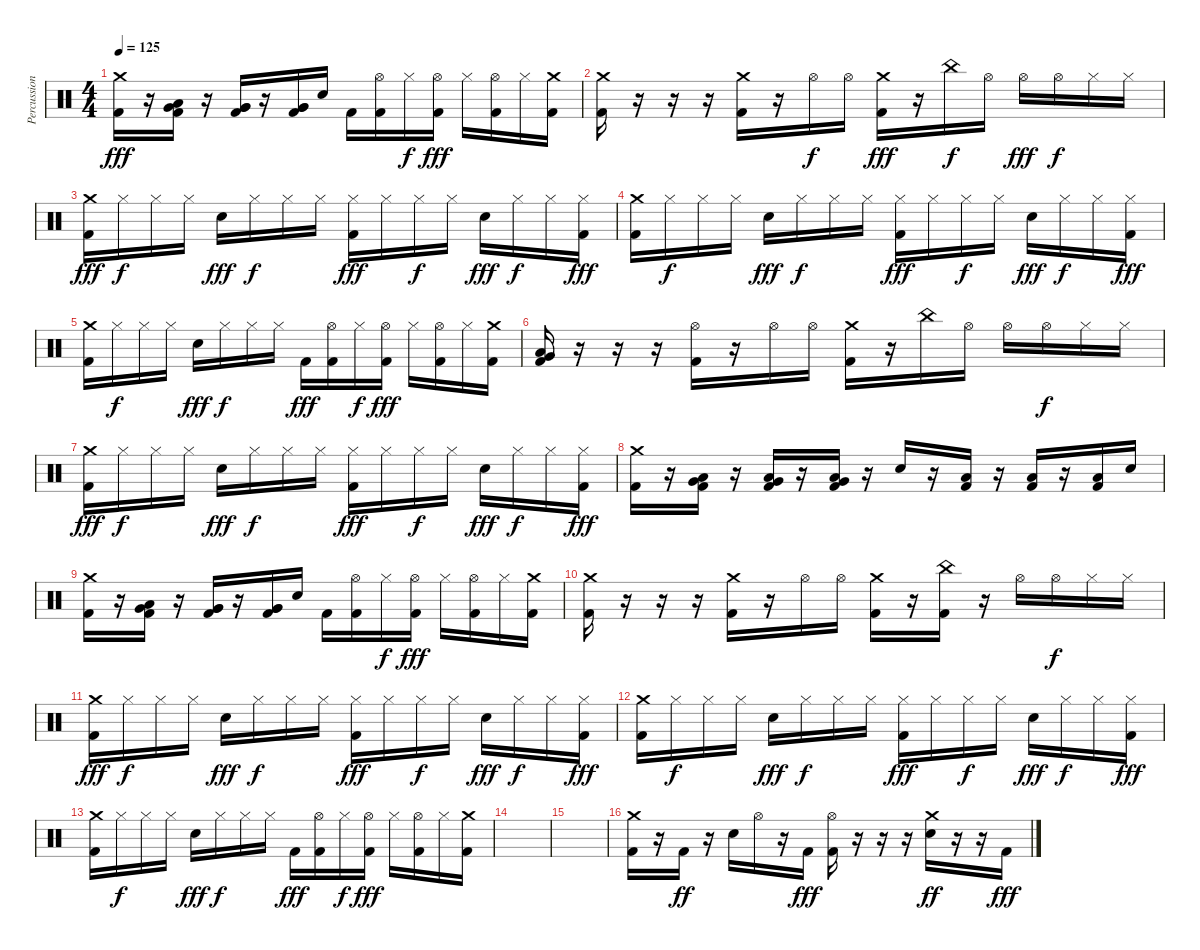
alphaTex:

\track ("Percussion" "Percussion") {instrument percussion}
\staff {score}
\articulation defaults
\ts (4 4)
\tempo 125
\clef neutral
\ks c
("Crash medium (hit)" "Kick (hit) 2").16{dy fff} r.16 ("Very Low Tom (hit)" "Low Floor Tom (hit)" "Kick (hit) 2").16 r.16 ("Very Low Tom (hit)" "Very Low Tom (hit)" "Kick (hit) 2").16 r.16 ("Very Low Tom (hit)" "Very Low Tom (hit)" "Kick (hit) 2").16 "Electric Snare (hit)".16 "Kick (hit) 2".16 ("Hi-Hat (open)" "Kick (hit) 2").16 "Hi-Hat (closed)".16{dy f} ("Hi-Hat (open)" "Kick (hit) 2").16{dy fff} "Hi-Hat (closed)".16 ("Hi-Hat (open)" "Kick (hit) 2").16 "Hi-Hat (closed)".16 ("Crash medium (hit)" "Kick (hit) 2").16 |
("Crash medium (hit)" "Kick (hit) 2").16 r.16 r.16 r.16 ("Crash medium (hit)" "Kick (hit) 2").16 r.16 "Hi-Hat (open)".16{dy f} "Hi-Hat (open)".16 ("Crash medium (hit)" "Kick (hit) 2").16{dy fff} r.16 "China (hit)".16{dy f} "Hi-Hat (open)".16 "Hi-Hat (open)".16{dy fff} "Hi-Hat (open)".16{dy f} "Hi-Hat (closed)".16 "Hi-Hat (closed)".16 |
("Crash medium (hit)" "Kick (hit) 2").16{dy fff} "Hi-Hat (closed)".16{dy f} "Hi-Hat (closed)".16 "Hi-Hat (closed)".16 "Electric Snare (hit)".16{dy fff} "Hi-Hat (closed)".16{dy f} "Hi-Hat (closed)".16 "Hi-Hat (closed)".16 ("Hi-Hat (closed)" "Kick (hit) 2").16{dy fff} "Hi-Hat (closed)".16 "Hi-Hat (closed)".16{dy f} "Hi-Hat (closed)".16 "Electric Snare (hit)".16{dy fff} "Hi-Hat (closed)".16{dy f} "Hi-Hat (closed)".16 ("Hi-Hat (closed)" "Kick (hit) 2").16{dy fff} |
("Crash medium (hit)" "Kick (hit) 2").16 "Hi-Hat (closed)".16{dy f} "Hi-Hat (closed)".16 "Hi-Hat (closed)".16 "Electric Snare (hit)".16{dy fff} "Hi-Hat (closed)".16{dy f} "Hi-Hat (closed)".16 "Hi-Hat (closed)".16 ("Hi-Hat (closed)" "Kick (hit) 2").16{dy fff} "Hi-Hat (closed)".16 "Hi-Hat (closed)".16{dy f} "Hi-Hat (closed)".16 "Electric Snare (hit)".16{dy fff} "Hi-Hat (closed)".16{dy f} "Hi-Hat (closed)".16 ("Hi-Hat (closed)" "Kick (hit) 2").16{dy fff} |
("Crash medium (hit)" "Kick (hit) 2").16 "Hi-Hat (closed)".16{dy f} "Hi-Hat (closed)".16 "Hi-Hat (closed)".16 "Electric Snare (hit)".16{dy fff} "Hi-Hat (closed)".16{dy f} "Hi-Hat (closed)".16 "Hi-Hat (closed)".16 "Kick (hit) 2".16{dy fff} ("Hi-Hat (open)" "Kick (hit) 2").16 "Hi-Hat (closed)".16{dy f} ("Hi-Hat (open)" "Kick (hit) 2").16{dy fff} "Hi-Hat (closed)".16 ("Hi-Hat (open)" "Kick (hit) 2").16 "Hi-Hat (closed)".16 ("Crash medium (hit)" "Kick (hit) 2").16 |
("Very Low Tom (hit)" "Low Floor Tom (hit)" "Kick (hit) 2").16 r.16 r.16 r.16 ("Hi-Hat (open)" "Kick (hit) 2").16 r.16 "Hi-Hat (open)".16 "Hi-Hat (open)".16 ("Crash medium (hit)" "Kick (hit) 2").16 r.16 "China (hit)".16 "Hi-Hat (open)".16 "Hi-Hat (open)".16 "Hi-Hat (open)".16{dy f} "Hi-Hat (closed)".16 "Hi-Hat (closed)".16 |
("Crash medium (hit)" "Kick (hit) 2").16{dy fff} "Hi-Hat (closed)".16{dy f} "Hi-Hat (closed)".16 "Hi-Hat (closed)".16 "Electric Snare (hit)".16{dy fff} "Hi-Hat (closed)".16{dy f} "Hi-Hat (closed)".16 "Hi-Hat (closed)".16 ("Hi-Hat (closed)" "Kick (hit) 2").16{dy fff} "Hi-Hat (closed)".16 "Hi-Hat (closed)".16{dy f} "Hi-Hat (closed)".16 "Electric Snare (hit)".16{dy fff} "Hi-Hat (closed)".16{dy f} "Hi-Hat (closed)".16 ("Hi-Hat (closed)" "Kick (hit) 2").16{dy fff} |
("Crash medium (hit)" "Kick (hit) 2").16 r.16 ("Very Low Tom (hit)" "Low Floor Tom (hit)" "Kick (hit) 2").16 r.16 ("Very Low Tom (hit)" "Low Floor Tom (hit)" "Kick (hit) 2").16 r.16 ("Very Low Tom (hit)" "Low Floor Tom (hit)" "Kick (hit) 2").16 r.16 "Electric Snare (hit)".16 r.16 ("Low Floor Tom (hit)" "Kick (hit) 2").16 r.16 ("Low Floor Tom (hit)" "Kick (hit) 2").16 r.16 ("Low Floor Tom (hit)" "Kick (hit) 2").16 "Electric Snare (hit)".16 |
("Crash medium (hit)" "Kick (hit) 2").16 r.16 ("Very Low Tom (hit)" "Low Floor Tom (hit)" "Kick (hit) 2").16 r.16 ("Very Low Tom (hit)" "Very Low Tom (hit)" "Kick (hit) 2").16 r.16 ("Very Low Tom (hit)" "Very Low Tom (hit)" "Kick (hit) 2").16 "Electric Snare (hit)".16 "Kick (hit) 2".16 ("Hi-Hat (open)" "Kick (hit) 2").16 "Hi-Hat (closed)".16{dy f} ("Hi-Hat (open)" "Kick (hit) 2").16{dy fff} "Hi-Hat (closed)".16 ("Hi-Hat (open)" "Kick (hit) 2").16 "Hi-Hat (closed)".16 ("Crash medium (hit)" "Kick (hit) 2").16 |
("Crash medium (hit)" "Kick (hit) 2").16 r.16 r.16 r.16 ("Crash medium (hit)" "Kick (hit) 2").16 r.16 "Hi-Hat (open)".16 "Hi-Hat (open)".16 ("Crash medium (hit)" "Kick (hit) 2").16 r.16 ("China (hit)" "Kick (hit) 2").16 r.16 "Hi-Hat (open)".16 "Hi-Hat (open)".16{dy f} "Hi-Hat (closed)".16 "Hi-Hat (closed)".16 |
("Crash medium (hit)" "Kick (hit) 2").16{dy fff} "Hi-Hat (closed)".16{dy f} "Hi-Hat (closed)".16 "Hi-Hat (closed)".16 "Electric Snare (hit)".16{dy fff} "Hi-Hat (closed)".16{dy f} "Hi-Hat (closed)".16 "Hi-Hat (closed)".16 ("Hi-Hat (closed)" "Kick (hit) 2").16{dy fff} "Hi-Hat (closed)".16 "Hi-Hat (closed)".16{dy f} "Hi-Hat (closed)".16 "Electric Snare (hit)".16{dy fff} "Hi-Hat (closed)".16{dy f} "Hi-Hat (closed)".16 ("Hi-Hat (closed)" "Kick (hit) 2").16{dy fff} |
("Crash medium (hit)" "Kick (hit) 2").16 "Hi-Hat (closed)".16{dy f} "Hi-Hat (closed)".16 "Hi-Hat (closed)".16 "Electric Snare (hit)".16{dy fff} "Hi-Hat (closed)".16{dy f} "Hi-Hat (closed)".16 "Hi-Hat (closed)".16 ("Hi-Hat (closed)" "Kick (hit) 2").16{dy fff} "Hi-Hat (closed)".16 "Hi-Hat (closed)".16{dy f} "Hi-Hat (closed)".16 "Electric Snare (hit)".16{dy fff} "Hi-Hat (closed)".16{dy f} "Hi-Hat (closed)".16 ("Hi-Hat (closed)" "Kick (hit) 2").16{dy fff} |
("Crash medium (hit)" "Kick (hit) 2").16 "Hi-Hat (closed)".16{dy f} "Hi-Hat (closed)".16 "Hi-Hat (closed)".16 "Electric Snare (hit)".16{dy fff} "Hi-Hat (closed)".16{dy f} "Hi-Hat (closed)".16 "Hi-Hat (closed)".16 "Kick (hit) 2".16{dy fff} ("Hi-Hat (open)" "Kick (hit) 2").16 "Hi-Hat (closed)".16{dy f} ("Hi-Hat (open)" "Kick (hit) 2").16{dy fff} "Hi-Hat (closed)".16 ("Hi-Hat (open)" "Kick (hit) 2").16 "Hi-Hat (closed)".16 ("Crash medium (hit)" "Kick (hit) 2").16 |
|
|
("Crash medium (hit)" "Kick (hit) 2").16 r.16 "Kick (hit) 2".16{dy ff} r.16 "Electric Snare (hit)".16 "Hi-Hat (open)".16 r.16 "Kick (hit) 2".16{dy fff} ("Hi-Hat (open)" "Kick (hit) 2").16 r.16 r.16 r.16 ("Crash medium (hit)" "Electric Snare (hit)").16{dy ff} r.16 r.16 "Kick (hit) 2".16{dy fff}
